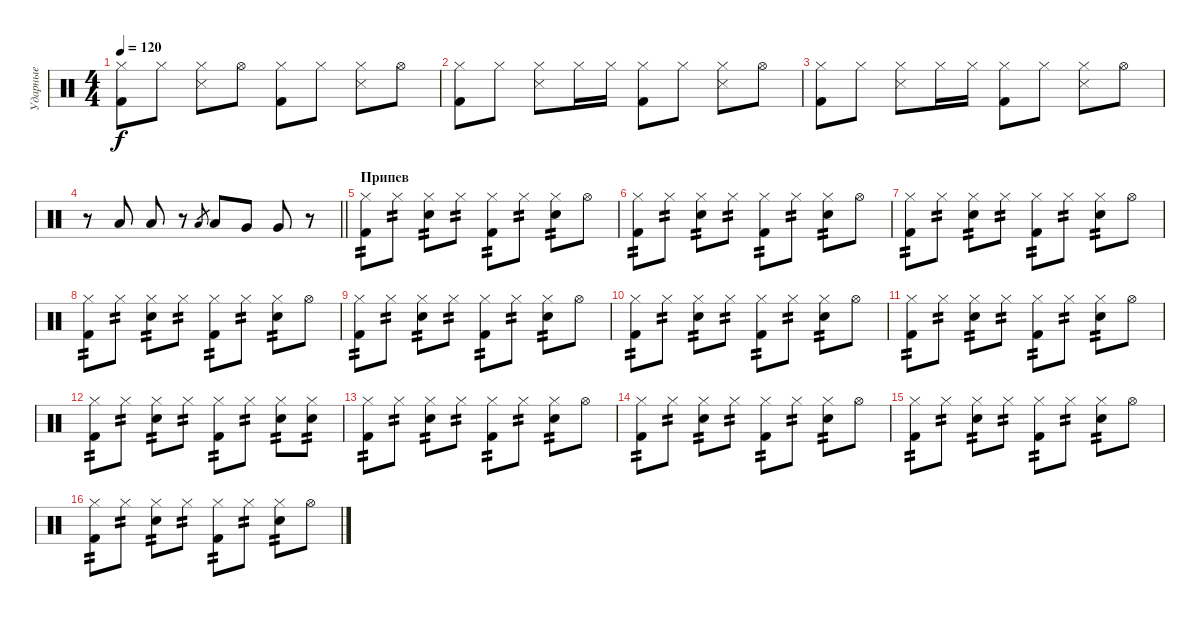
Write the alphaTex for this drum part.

\track ("Ударные" "Ударные") {instrument percussion}
\staff {score}
\articulation defaults
\ts (4 4)
\tempo 120
\clef neutral
\ks c
("Hi-Hat (closed)" "Kick (hit) 2").8{dy f} "Hi-Hat (closed)".8 ("Hi-Hat (closed)" "Snare (side stick) 3").8 "Hi-Hat (open)".8 ("Hi-Hat (closed)" "Kick (hit) 2").8 "Hi-Hat (closed)".8 ("Hi-Hat (closed)" "Snare (side stick) 3").8 "Hi-Hat (open)".8 |
("Hi-Hat (closed)" "Kick (hit) 2").8 "Hi-Hat (closed)".8 ("Hi-Hat (closed)" "Snare (side stick) 3").8 "Hi-Hat (closed)".16 "Hi-Hat (closed)".16 ("Hi-Hat (closed)" "Kick (hit) 2").8 "Hi-Hat (closed)".8 ("Hi-Hat (closed)" "Snare (side stick) 3").8 "Hi-Hat (open)".8 |
("Hi-Hat (closed)" "Kick (hit) 2").8 "Hi-Hat (closed)".8 ("Hi-Hat (closed)" "Snare (side stick) 3").8 "Hi-Hat (closed)".16 "Hi-Hat (closed)".16 ("Hi-Hat (closed)" "Kick (hit) 2").8 "Hi-Hat (closed)".8 ("Hi-Hat (closed)" "Snare (side stick) 3").8 "Hi-Hat (open)".8 |
\barLineRight lightlight
r.8 "Low Tom (hit)".8 "Low Tom (hit)".8 r.8 "Low Tom (hit)".8{gr} "Low Tom (hit)".8 "Very Low Tom (hit)".8 "Very Low Tom (hit)".8 r.8 |
\section ("" "Припев")
("Hi-Hat (closed)" "Kick (hit) 2").8{tp 2} "Hi-Hat (closed)".8{tp 2} ("Hi-Hat (closed)" "Snare (hit) 2").8{tp 2} "Hi-Hat (closed)".8{tp 2} ("Hi-Hat (closed)" "Kick (hit) 2").8{tp 2} "Hi-Hat (closed)".8{tp 2} ("Hi-Hat (closed)" "Snare (hit) 2").8{tp 2} "Hi-Hat (open)".8 |
("Hi-Hat (closed)" "Kick (hit) 2").8{tp 2} "Hi-Hat (closed)".8{tp 2} ("Hi-Hat (closed)" "Snare (hit) 2").8{tp 2} "Hi-Hat (closed)".8{tp 2} ("Hi-Hat (closed)" "Kick (hit) 2").8{tp 2} "Hi-Hat (closed)".8{tp 2} ("Hi-Hat (closed)" "Snare (hit) 2").8{tp 2} "Hi-Hat (open)".8 |
("Hi-Hat (closed)" "Kick (hit) 2").8{tp 2} "Hi-Hat (closed)".8{tp 2} ("Hi-Hat (closed)" "Snare (hit) 2").8{tp 2} "Hi-Hat (closed)".8{tp 2} ("Hi-Hat (closed)" "Kick (hit) 2").8{tp 2} "Hi-Hat (closed)".8{tp 2} ("Hi-Hat (closed)" "Snare (hit) 2").8{tp 2} "Hi-Hat (open)".8 |
("Hi-Hat (closed)" "Kick (hit) 2").8{tp 2} "Hi-Hat (closed)".8{tp 2} ("Hi-Hat (closed)" "Snare (hit) 2").8{tp 2} "Hi-Hat (closed)".8{tp 2} ("Hi-Hat (closed)" "Kick (hit) 2").8{tp 2} "Hi-Hat (closed)".8{tp 2} ("Hi-Hat (closed)" "Snare (hit) 2").8{tp 2} "Hi-Hat (open)".8 |
("Hi-Hat (closed)" "Kick (hit) 2").8{tp 2} "Hi-Hat (closed)".8{tp 2} ("Hi-Hat (closed)" "Snare (hit) 2").8{tp 2} "Hi-Hat (closed)".8{tp 2} ("Hi-Hat (closed)" "Kick (hit) 2").8{tp 2} "Hi-Hat (closed)".8{tp 2} ("Hi-Hat (closed)" "Snare (hit) 2").8{tp 2} "Hi-Hat (open)".8 |
("Hi-Hat (closed)" "Kick (hit) 2").8{tp 2} "Hi-Hat (closed)".8{tp 2} ("Hi-Hat (closed)" "Snare (hit) 2").8{tp 2} "Hi-Hat (closed)".8{tp 2} ("Hi-Hat (closed)" "Kick (hit) 2").8{tp 2} "Hi-Hat (closed)".8{tp 2} ("Hi-Hat (closed)" "Snare (hit) 2").8{tp 2} "Hi-Hat (open)".8 |
("Hi-Hat (closed)" "Kick (hit) 2").8{tp 2} "Hi-Hat (closed)".8{tp 2} ("Hi-Hat (closed)" "Snare (hit) 2").8{tp 2} "Hi-Hat (closed)".8{tp 2} ("Hi-Hat (closed)" "Kick (hit) 2").8{tp 2} "Hi-Hat (closed)".8{tp 2} ("Hi-Hat (closed)" "Snare (hit) 2").8{tp 2} "Hi-Hat (open)".8 |
("Hi-Hat (closed)" "Kick (hit) 2").8{tp 2} "Hi-Hat (closed)".8{tp 2} ("Hi-Hat (closed)" "Snare (hit) 2").8{tp 2} "Hi-Hat (closed)".8{tp 2} ("Hi-Hat (closed)" "Kick (hit) 2").8{tp 2} "Hi-Hat (closed)".8{tp 2} ("Hi-Hat (closed)" "Snare (hit) 2").8{tp 2} ("Hi-Hat (closed)" "Snare (hit) 2").8{tp 2} |
("Hi-Hat (closed)" "Kick (hit) 2").8{tp 2} "Hi-Hat (closed)".8{tp 2} ("Hi-Hat (closed)" "Snare (hit) 2").8{tp 2} "Hi-Hat (closed)".8{tp 2} ("Hi-Hat (closed)" "Kick (hit) 2").8{tp 2} "Hi-Hat (closed)".8{tp 2} ("Hi-Hat (closed)" "Snare (hit) 2").8{tp 2} "Hi-Hat (open)".8 |
("Hi-Hat (closed)" "Kick (hit) 2").8{tp 2} "Hi-Hat (closed)".8{tp 2} ("Hi-Hat (closed)" "Snare (hit) 2").8{tp 2} "Hi-Hat (closed)".8{tp 2} ("Hi-Hat (closed)" "Kick (hit) 2").8{tp 2} "Hi-Hat (closed)".8{tp 2} ("Hi-Hat (closed)" "Snare (hit) 2").8{tp 2} "Hi-Hat (open)".8 |
("Hi-Hat (closed)" "Kick (hit) 2").8{tp 2} "Hi-Hat (closed)".8{tp 2} ("Hi-Hat (closed)" "Snare (hit) 2").8{tp 2} "Hi-Hat (closed)".8{tp 2} ("Hi-Hat (closed)" "Kick (hit) 2").8{tp 2} "Hi-Hat (closed)".8{tp 2} ("Hi-Hat (closed)" "Snare (hit) 2").8{tp 2} "Hi-Hat (open)".8 |
("Hi-Hat (closed)" "Kick (hit) 2").8{tp 2} "Hi-Hat (closed)".8{tp 2} ("Hi-Hat (closed)" "Snare (hit) 2").8{tp 2} "Hi-Hat (closed)".8{tp 2} ("Hi-Hat (closed)" "Kick (hit) 2").8{tp 2} "Hi-Hat (closed)".8{tp 2} ("Hi-Hat (closed)" "Snare (hit) 2").8{tp 2} "Hi-Hat (open)".8
